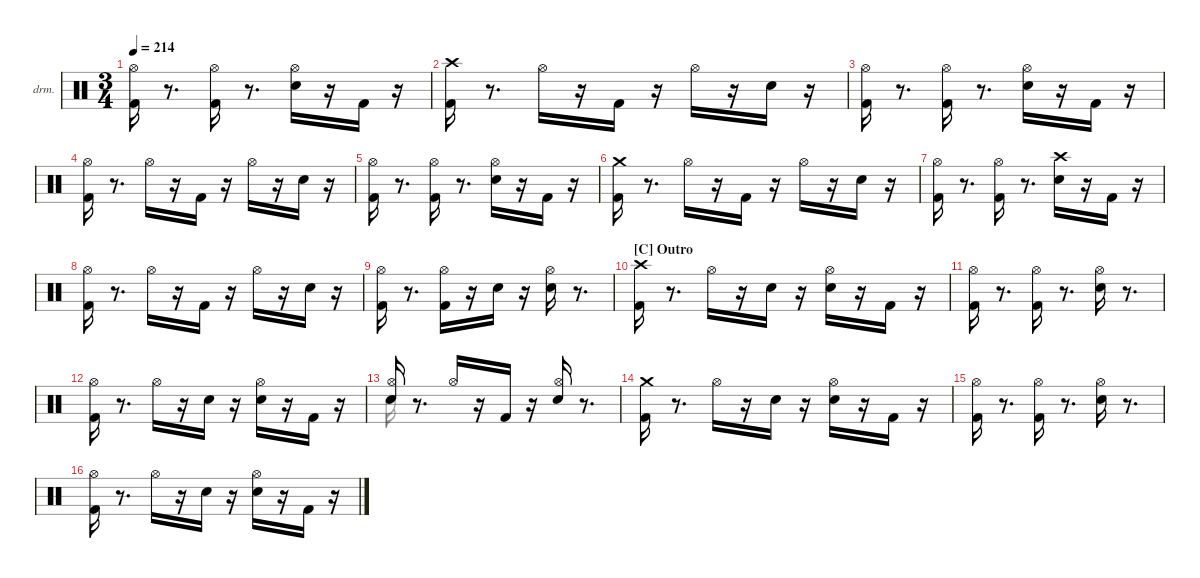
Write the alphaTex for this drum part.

\hideDynamics
\bracketExtendMode nobrackets
\firstSystemTrackNameOrientation horizontal
\otherSystemsTrackNameOrientation horizontal
\track ("EZdrummer 3" "drm.") {instrument percussion}
\staff {score}
\articulation defaults
\voice
\ts (3 4)
\tempo 214
\clef neutral
\ks aminor
("Kick (hit) 2" "Hi-Hat (open)"{acc #}).16{dy fff} r.8{d} ("Kick (hit) 2" "Hi-Hat (open)"{acc #}).16{dy mf} r.8{d} ("Snare (hit) 2" "Hi-Hat (open)"{acc #}).16{dy f} r.16 "Kick (hit) 2".16{dy mp} r.16 |
("Kick (hit) 2" "Crash high (hit)"{acc #}).16{dy fff} r.8{d} "Hi-Hat (open)"{acc #}.16{dy mf} r.16 "Kick (hit) 2".16{dy ff} r.16 "Hi-Hat (open)"{acc #}.16{dy f} r.16 "Snare (hit) 2".16{dy ff} r.16 |
("Kick (hit) 2" "Hi-Hat (open)"{acc #}).16{dy fff} r.8{d} ("Kick (hit) 2" "Hi-Hat (open)"{acc #}).16{dy f} r.8{d} ("Snare (hit) 2" "Hi-Hat (open)"{acc #}).16 r.16 "Kick (hit) 2".16{dy mp} r.16 |
("Kick (hit) 2" "Hi-Hat (open)"{acc #}).16{dy ff} r.8{d} "Hi-Hat (open)"{acc #}.16{dy mf} r.16 "Kick (hit) 2".16{dy ff} r.16 "Hi-Hat (open)"{acc #}.16{dy f} r.16 "Snare (hit) 2".16{dy ff} r.16 |
("Kick (hit) 2" "Hi-Hat (open)"{acc #}).16{dy fff} r.8{d} ("Kick (hit) 2" "Hi-Hat (open)"{acc #}).16{dy ff} r.8{d} ("Snare (hit) 2" "Hi-Hat (open)"{acc #}).16{dy f} r.16 "Kick (hit) 2".16{dy mp} r.16 |
("Kick (hit) 2" "Crash medium (hit)").16{dy ff} r.8{d} "Hi-Hat (open)"{acc #}.16{dy mf} r.16 "Kick (hit) 2".16{dy f} r.16 "Hi-Hat (open)"{acc #}.16 r.16 "Snare (hit) 2".16{dy ff} r.16 |
("Kick (hit) 2" "Hi-Hat (open)"{acc #}).16{dy fff} r.8{d} ("Kick (hit) 2" "Hi-Hat (open)"{acc #}).16{dy f} r.8{d} ("Snare (hit) 2" "Crash high (hit)"{acc #}).16{dy ff} r.16 "Kick (hit) 2".16{dy mf} r.16 |
("Kick (hit) 2" "Hi-Hat (open)"{acc #}).16{dy fff} r.8{d} "Hi-Hat (open)"{acc #}.16{dy mf} r.16 "Kick (hit) 2".16{dy ff} r.16 "Hi-Hat (open)"{acc #}.16 r.16 "Snare (hit) 2".16 r.16 |
("Kick (hit) 2" "Hi-Hat (open)"{acc #}).16 r.8{d} ("Kick (hit) 2" "Hi-Hat (open)"{acc #}).16 r.16 "Snare (hit) 2".16{dy f} r.16 ("Snare (hit) 2" "Hi-Hat (open)"{acc #}).16{dy fff} r.8{d} |
\section ("C" "Outro")
("Kick (hit) 2" "Crash high (hit)"{acc #}).16 r.8{d} "Hi-Hat (open)"{acc #}.16{dy mf} r.16 "Snare (hit) 2".16{dy f} r.16 ("Snare (hit) 2" "Hi-Hat (open)"{acc #}).16{dy p} r.16 "Kick (hit) 2".16{dy mp} r.16 |
("Kick (hit) 2" "Hi-Hat (open)"{acc #}).16{dy f} r.8{d} ("Kick (hit) 2" "Hi-Hat (open)"{acc #}).16{dy mf} r.8{d} ("Snare (hit) 2" "Hi-Hat (open)"{acc #}).16{dy mp} r.8{d} |
("Kick (hit) 2" "Hi-Hat (open)"{acc #}).16{dy mf} r.8{d} "Hi-Hat (open)"{acc #}.16{dy mp} r.16 "Snare (hit) 2".16{dy f} r.16 ("Snare (hit) 2" "Hi-Hat (open)"{acc #}).16 r.16 "Kick (hit) 2".16{dy mf} r.16 |
("Snare (hit) 2" "Hi-Hat (open)"{acc #}).16{dy pp} r.8{d} "Hi-Hat (open)"{acc #}.16{dy f} r.16 "Kick (hit) 2".16{dy mp} r.16 ("Snare (hit) 2" "Hi-Hat (open)"{acc #}).16{dy ff} r.8{d} |
("Kick (hit) 2" "Crash medium (hit)").16 r.8{d} "Hi-Hat (open)"{acc #}.16{dy mf} r.16 "Snare (hit) 2".16{dy f} r.16 ("Snare (hit) 2" "Hi-Hat (open)"{acc #}).16{dy p} r.16 "Kick (hit) 2".16{dy mp} r.16 |
("Kick (hit) 2" "Hi-Hat (open)"{acc #}).16{dy f} r.8{d} ("Kick (hit) 2" "Hi-Hat (open)"{acc #}).16{dy mf} r.8{d} ("Snare (hit) 2" "Hi-Hat (open)"{acc #}).16{dy f} r.8{d} |
("Kick (hit) 2" "Hi-Hat (open)"{acc #}).16{dy mf} r.8{d} "Hi-Hat (open)"{acc #}.16{dy mp} r.16 "Snare (hit) 2".16{dy f} r.16 ("Snare (hit) 2" "Hi-Hat (open)"{acc #}).16{dy p} r.16 "Kick (hit) 2".16{dy mf} r.16
\voice
\clef neutral
\ottava regular
\simile none
\ks aminor
|
|
|
|
|
|
|
|
|
|
|
|
"Snare (hit) 2".16 |
|
|
